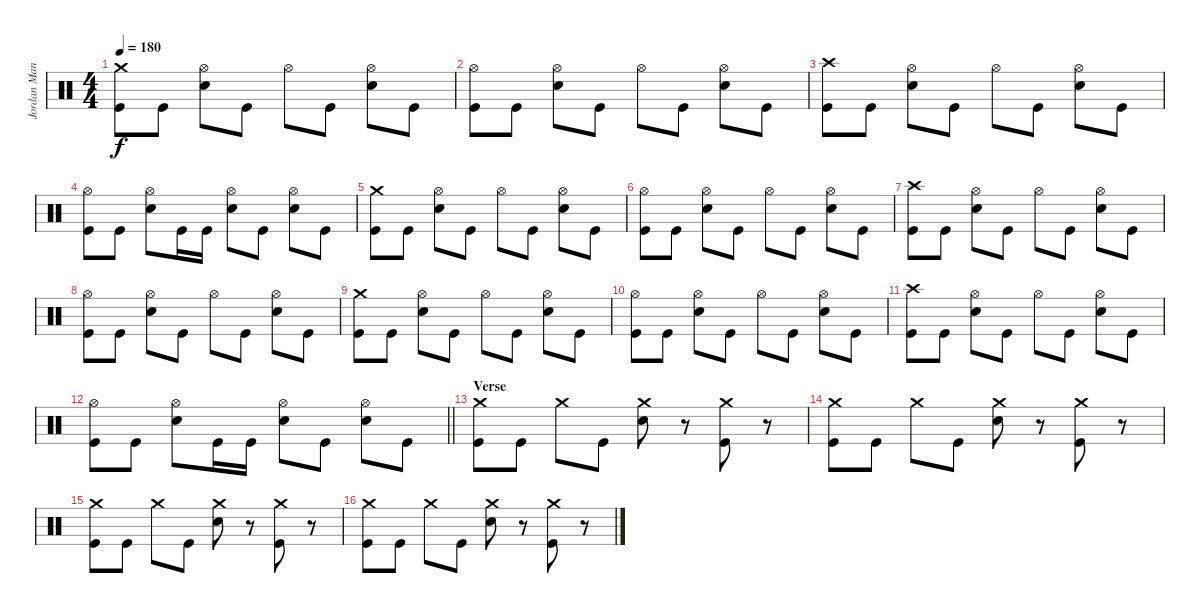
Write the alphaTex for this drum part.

\track ("Jordan Mancino" "Jordan Man") {instrument percussion}
\staff {score}
\articulation defaults
\ts (4 4)
\tempo 180
\clef neutral
\ks c
("Crash medium (hit)" "Kick (hit)").8{dy f} "Kick (hit)".8 ("Hi-Hat (open)" "Snare (hit) 2").8 "Kick (hit)".8 "Hi-Hat (open)".8 "Kick (hit)".8 ("Hi-Hat (open)" "Snare (hit) 2").8 "Kick (hit)".8 |
("Hi-Hat (open)" "Kick (hit)").8 "Kick (hit)".8 ("Hi-Hat (open)" "Snare (hit) 2").8 "Kick (hit)".8 "Hi-Hat (open)".8 "Kick (hit)".8 ("Hi-Hat (open)" "Snare (hit) 2").8 "Kick (hit)".8 |
("Crash high (hit)" "Kick (hit)").8 "Kick (hit)".8 ("Hi-Hat (open)" "Snare (hit) 2").8 "Kick (hit)".8 "Hi-Hat (open)".8 "Kick (hit)".8 ("Hi-Hat (open)" "Snare (hit) 2").8 "Kick (hit)".8 |
("Hi-Hat (open)" "Kick (hit)").8 "Kick (hit)".8 ("Hi-Hat (open)" "Snare (hit) 2").8 "Kick (hit)".16 "Kick (hit)".16 ("Hi-Hat (open)" "Snare (hit) 2").8 "Kick (hit)".8 ("Hi-Hat (open)" "Snare (hit) 2").8 "Kick (hit)".8 |
("Crash medium (hit)" "Kick (hit)").8 "Kick (hit)".8 ("Hi-Hat (open)" "Snare (hit) 2").8 "Kick (hit)".8 "Hi-Hat (open)".8 "Kick (hit)".8 ("Hi-Hat (open)" "Snare (hit) 2").8 "Kick (hit)".8 |
("Hi-Hat (open)" "Kick (hit)").8 "Kick (hit)".8 ("Hi-Hat (open)" "Snare (hit) 2").8 "Kick (hit)".8 "Hi-Hat (open)".8 "Kick (hit)".8 ("Hi-Hat (open)" "Snare (hit) 2").8 "Kick (hit)".8 |
("Crash high (hit)" "Kick (hit)").8 "Kick (hit)".8 ("Hi-Hat (open)" "Snare (hit) 2").8 "Kick (hit)".8 "Hi-Hat (open)".8 "Kick (hit)".8 ("Hi-Hat (open)" "Snare (hit) 2").8 "Kick (hit)".8 |
("Hi-Hat (open)" "Kick (hit)").8 "Kick (hit)".8 ("Hi-Hat (open)" "Snare (hit) 2").8 "Kick (hit)".8 "Hi-Hat (open)".8 "Kick (hit)".8 ("Hi-Hat (open)" "Snare (hit) 2").8 "Kick (hit)".8 |
("Crash medium (hit)" "Kick (hit)").8 "Kick (hit)".8 ("Hi-Hat (open)" "Snare (hit) 2").8 "Kick (hit)".8 "Hi-Hat (open)".8 "Kick (hit)".8 ("Hi-Hat (open)" "Snare (hit) 2").8 "Kick (hit)".8 |
("Hi-Hat (open)" "Kick (hit)").8 "Kick (hit)".8 ("Hi-Hat (open)" "Snare (hit) 2").8 "Kick (hit)".8 "Hi-Hat (open)".8 "Kick (hit)".8 ("Hi-Hat (open)" "Snare (hit) 2").8 "Kick (hit)".8 |
("Crash high (hit)" "Kick (hit)").8 "Kick (hit)".8 ("Hi-Hat (open)" "Snare (hit) 2").8 "Kick (hit)".8 "Hi-Hat (open)".8 "Kick (hit)".8 ("Hi-Hat (open)" "Snare (hit) 2").8 "Kick (hit)".8 |
\barLineRight lightlight
("Hi-Hat (open)" "Kick (hit)").8 "Kick (hit)".8 ("Hi-Hat (open)" "Snare (hit) 2").8 "Kick (hit)".16 "Kick (hit)".16 ("Hi-Hat (open)" "Snare (hit) 2").8 "Kick (hit)".8 ("Hi-Hat (open)" "Snare (hit) 2").8 "Kick (hit)".8 |
\section ("" "Verse")
("Crash medium (hit)" "Kick (hit)").8 "Kick (hit)".8 "Crash medium (hit)".8 "Kick (hit)".8 ("Crash medium (hit)" "Snare (hit) 2").8 r.8 ("Crash medium (hit)" "Kick (hit)").8 r.8 |
("Crash medium (hit)" "Kick (hit)").8 "Kick (hit)".8 "Crash medium (hit)".8 "Kick (hit)".8 ("Crash medium (hit)" "Snare (hit) 2").8 r.8 ("Crash medium (hit)" "Kick (hit)").8 r.8 |
("Crash medium (hit)" "Kick (hit)").8 "Kick (hit)".8 "Crash medium (hit)".8 "Kick (hit)".8 ("Crash medium (hit)" "Snare (hit) 2").8 r.8 ("Crash medium (hit)" "Kick (hit)").8 r.8 |
("Crash medium (hit)" "Kick (hit)").8 "Kick (hit)".8 "Crash medium (hit)".8 "Kick (hit)".8 ("Crash medium (hit)" "Snare (hit) 2").8 r.8 ("Crash medium (hit)" "Kick (hit)").8 r.8
